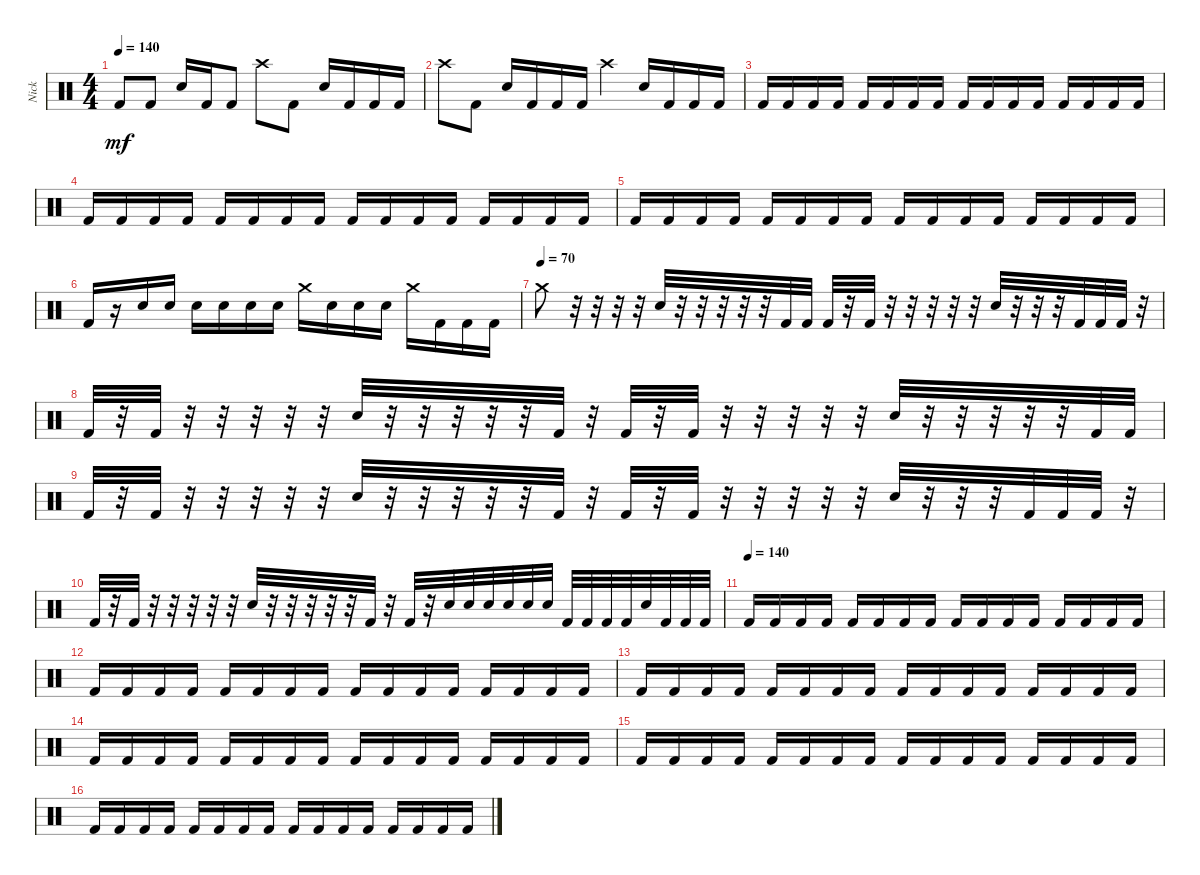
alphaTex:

\track ("Nick " "Nick ") {instrument percussion}
\staff {score}
\articulation defaults
\ts (4 4)
\tempo 140
\clef neutral
\ks c "Kick (hit) 2".8{dy mf} "Kick (hit) 2".8 "Snare (hit) 2".16 "Kick (hit) 2".16 "Kick (hit) 2".8 "Crash high (hit)".8 "Kick (hit) 2".8 "Snare (hit) 2".16 "Kick (hit) 2".16 "Kick (hit) 2".16 "Kick (hit) 2".16
|
"Crash high (hit)".8 "Kick (hit) 2".8 "Snare (hit) 2".16 "Kick (hit) 2".16 "Kick (hit) 2".16 "Kick (hit) 2".16 "Crash high (hit)".4 "Snare (hit) 2".16 "Kick (hit) 2".16 "Kick (hit) 2".16 "Kick (hit) 2".16 |
"Kick (hit) 2".16 "Kick (hit) 2".16 "Kick (hit) 2".16 "Kick (hit) 2".16 "Kick (hit) 2".16 "Kick (hit) 2".16 "Kick (hit) 2".16 "Kick (hit) 2".16 "Kick (hit) 2".16 "Kick (hit) 2".16 "Kick (hit) 2".16 "Kick (hit) 2".16 "Kick (hit) 2".16 "Kick (hit) 2".16 "Kick (hit) 2".16 "Kick (hit) 2".16 |
"Kick (hit) 2".16 "Kick (hit) 2".16 "Kick (hit) 2".16 "Kick (hit) 2".16 "Kick (hit) 2".16 "Kick (hit) 2".16 "Kick (hit) 2".16 "Kick (hit) 2".16 "Kick (hit) 2".16 "Kick (hit) 2".16 "Kick (hit) 2".16 "Kick (hit) 2".16 "Kick (hit) 2".16 "Kick (hit) 2".16 "Kick (hit) 2".16 "Kick (hit) 2".16 |
"Kick (hit) 2".16 "Kick (hit) 2".16 "Kick (hit) 2".16 "Kick (hit) 2".16 "Kick (hit) 2".16 "Kick (hit) 2".16 "Kick (hit) 2".16 "Kick (hit) 2".16 "Kick (hit) 2".16 "Kick (hit) 2".16 "Kick (hit) 2".16 "Kick (hit) 2".16 "Kick (hit) 2".16 "Kick (hit) 2".16 "Kick (hit) 2".16 "Kick (hit) 2".16 |
"Kick (hit) 2".16 r.16 "Snare (hit) 2".16 "Snare (hit) 2".16 "Snare (hit) 2".16 "Snare (hit) 2".16 "Snare (hit) 2".16 "Snare (hit) 2".16 "Crash medium (hit)".16 "Snare (hit) 2".16 "Snare (hit) 2".16 "Snare (hit) 2".16 "Crash medium (hit)".16 "Kick (hit) 2".16 "Kick (hit) 2".16 "Kick (hit) 2".16 |
\tempo (70)
"Crash medium (hit)".8 r.32 r.32 r.32 r.32 "Snare (hit) 2".32 r.32 r.32 r.32 r.32 r.32 "Kick (hit) 2".32 "Kick (hit) 2".32 "Kick (hit) 2".32 r.32 "Kick (hit) 2".32 r.32 r.32 r.32 r.32 r.32 "Snare (hit) 2".32 r.32 r.32 r.32 "Kick (hit) 2".32 "Kick (hit) 2".32 "Kick (hit) 2".32 r.32 |
"Kick (hit) 2".32 r.32 "Kick (hit) 2".32 r.32 r.32 r.32 r.32 r.32 "Snare (hit) 2".32 r.32 r.32 r.32 r.32 r.32 "Kick (hit) 2".32 r.32 "Kick (hit) 2".32 r.32 "Kick (hit) 2".32 r.32 r.32 r.32 r.32 r.32 "Snare (hit) 2".32 r.32 r.32 r.32 r.32 r.32 "Kick (hit) 2".32 "Kick (hit) 2".32 |
"Kick (hit) 2".32 r.32 "Kick (hit) 2".32 r.32 r.32 r.32 r.32 r.32 "Snare (hit) 2".32 r.32 r.32 r.32 r.32 r.32 "Kick (hit) 2".32 r.32 "Kick (hit) 2".32 r.32 "Kick (hit) 2".32 r.32 r.32 r.32 r.32 r.32 "Snare (hit) 2".32 r.32 r.32 r.32 "Kick (hit) 2".32 "Kick (hit) 2".32 "Kick (hit) 2".32 r.32 |
"Kick (hit) 2".32 r.32 "Kick (hit) 2".32 r.32 r.32 r.32 r.32 r.32 "Snare (hit) 2".32 r.32 r.32 r.32 r.32 r.32 "Kick (hit) 2".32 r.32 "Kick (hit) 2".32 r.32 "Snare (hit) 2".32 "Snare (hit) 2".32 "Snare (hit) 2".32 "Snare (hit) 2".32 "Snare (hit) 2".32 "Snare (hit) 2".32 "Kick (hit) 2".32 "Kick (hit) 2".32 "Kick (hit) 2".32 "Kick (hit) 2".32 "Snare (hit) 2".32 "Kick (hit) 2".32 "Kick (hit) 2".32 "Kick (hit) 2".32 |
\tempo (140)
"Kick (hit) 2".16 "Kick (hit) 2".16 "Kick (hit) 2".16 "Kick (hit) 2".16 "Kick (hit) 2".16 "Kick (hit) 2".16 "Kick (hit) 2".16 "Kick (hit) 2".16 "Kick (hit) 2".16 "Kick (hit) 2".16 "Kick (hit) 2".16 "Kick (hit) 2".16 "Kick (hit) 2".16 "Kick (hit) 2".16 "Kick (hit) 2".16 "Kick (hit) 2".16 |
"Kick (hit) 2".16 "Kick (hit) 2".16 "Kick (hit) 2".16 "Kick (hit) 2".16 "Kick (hit) 2".16 "Kick (hit) 2".16 "Kick (hit) 2".16 "Kick (hit) 2".16 "Kick (hit) 2".16 "Kick (hit) 2".16 "Kick (hit) 2".16 "Kick (hit) 2".16 "Kick (hit) 2".16 "Kick (hit) 2".16 "Kick (hit) 2".16 "Kick (hit) 2".16 |
"Kick (hit) 2".16 "Kick (hit) 2".16 "Kick (hit) 2".16 "Kick (hit) 2".16 "Kick (hit) 2".16 "Kick (hit) 2".16 "Kick (hit) 2".16 "Kick (hit) 2".16 "Kick (hit) 2".16 "Kick (hit) 2".16 "Kick (hit) 2".16 "Kick (hit) 2".16 "Kick (hit) 2".16 "Kick (hit) 2".16 "Kick (hit) 2".16 "Kick (hit) 2".16 |
"Kick (hit) 2".16 "Kick (hit) 2".16 "Kick (hit) 2".16 "Kick (hit) 2".16 "Kick (hit) 2".16 "Kick (hit) 2".16 "Kick (hit) 2".16 "Kick (hit) 2".16 "Kick (hit) 2".16 "Kick (hit) 2".16 "Kick (hit) 2".16 "Kick (hit) 2".16 "Kick (hit) 2".16 "Kick (hit) 2".16 "Kick (hit) 2".16 "Kick (hit) 2".16 |
"Kick (hit) 2".16 "Kick (hit) 2".16 "Kick (hit) 2".16 "Kick (hit) 2".16 "Kick (hit) 2".16 "Kick (hit) 2".16 "Kick (hit) 2".16 "Kick (hit) 2".16 "Kick (hit) 2".16 "Kick (hit) 2".16 "Kick (hit) 2".16 "Kick (hit) 2".16 "Kick (hit) 2".16 "Kick (hit) 2".16 "Kick (hit) 2".16 "Kick (hit) 2".16 |
"Kick (hit) 2".16 "Kick (hit) 2".16 "Kick (hit) 2".16 "Kick (hit) 2".16 "Kick (hit) 2".16 "Kick (hit) 2".16 "Kick (hit) 2".16 "Kick (hit) 2".16 "Kick (hit) 2".16 "Kick (hit) 2".16 "Kick (hit) 2".16 "Kick (hit) 2".16 "Kick (hit) 2".16 "Kick (hit) 2".16 "Kick (hit) 2".16 "Kick (hit) 2".16
